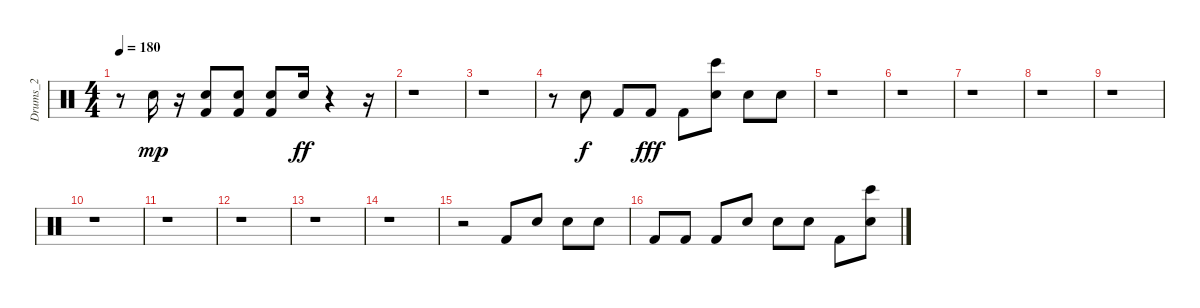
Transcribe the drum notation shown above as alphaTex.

\track ("Drums_2" "Drums_2") {instrument percussion}
\staff {score}
\articulation defaults
\ts (4 4)
\tempo 180
\clef neutral
\ks c
r.8{dy ff} "Snare (hit) 2".16{dy mp} r.16 ("Kick (hit) 2" "Snare (hit) 2").8 ("Kick (hit) 2" "Snare (hit) 2").8 ("Kick (hit) 2" "Snare (hit) 2").8 "Snare (hit) 2".16{dy ff} r.4 r.16 |
r.1 |
r.1 |
r.8 "Snare (hit) 2".8{dy f} "Kick (hit) 2".8 "Kick (hit) 2".8{dy fff} "Kick (hit) 2".8 ("Bongo High (hit)" "Snare (hit) 2").8 "Snare (hit) 2".8 "Snare (hit) 2".8 |
r.1 |
r.1 |
r.1 |
r.1 |
r.1 |
r.1 |
r.1 |
r.1 |
r.1 |
r.1 |
r.2 "Kick (hit) 2".8 "Snare (hit) 2".8 "Snare (hit) 2".8 "Snare (hit) 2".8 |
"Kick (hit) 2".8 "Kick (hit) 2".8 "Kick (hit) 2".8 "Snare (hit) 2".8 "Snare (hit) 2".8 "Snare (hit) 2".8 "Kick (hit) 2".8 ("Bongo High (hit)" "Snare (hit) 2").8
